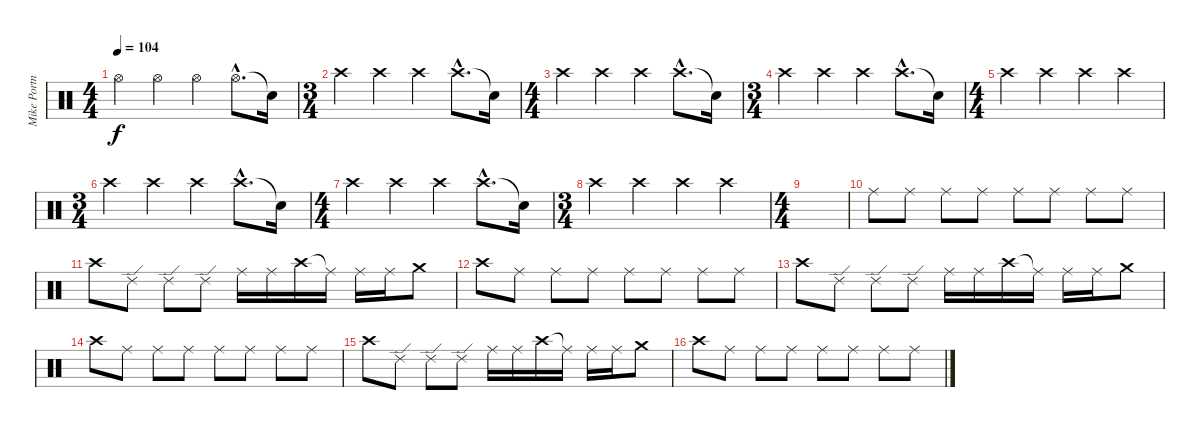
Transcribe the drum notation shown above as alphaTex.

\track ("Mike Portnoy" "Mike Portn") {instrument percussion}
\staff {score}
\articulation defaults
\ts (4 4)
\tempo 104
\clef neutral
\ks c "Hi-Hat (open)".4{dy f} "Hi-Hat (open)".4 "Hi-Hat (open)".4 "Hi-Hat (open)"{hac}.8{d} "Snare (hit)"{t}.16
|
\ts (3 4)
"Crash high (hit)".4 "Crash high (hit)".4 "Crash high (hit)".4 "Crash high (hit)"{hac}.8{d} "Snare (hit)"{t}.16 |
\ts (4 4)
"Crash high (hit)".4 "Crash high (hit)".4 "Crash high (hit)".4 "Crash high (hit)"{hac}.8{d} "Snare (hit)"{t}.16 |
\ts (3 4)
"Crash high (hit)".4 "Crash high (hit)".4 "Crash high (hit)".4 "Crash high (hit)"{hac}.8{d} "Snare (hit)"{t}.16 |
\ts (4 4)
"Crash high (hit)".4 "Crash high (hit)".4 "Crash high (hit)".4 "Crash high (hit)".4 |
\ts (3 4)
"Crash high (hit)".4 "Crash high (hit)".4 "Crash high (hit)".4 "Crash high (hit)"{hac}.8{d} "Snare (hit)"{t}.16 |
\ts (4 4)
"Crash high (hit)".4 "Crash high (hit)".4 "Crash high (hit)".4 "Crash high (hit)"{hac}.8{d} "Snare (hit)"{t}.16 |
\ts (3 4)
"Crash high (hit)".4 "Crash high (hit)".4 "Crash high (hit)".4 "Crash high (hit)".4 |
\ts (4 4)
|
"Ride (middle)".8 "Ride (middle)".8 "Ride (middle)".8 "Ride (middle)".8 "Ride (middle)".8 "Ride (middle)".8 "Ride (middle)".8 "Ride (middle)".8 |
"Crash high (hit)".8 "Ride (edge) 2".8 "Ride (edge) 2".8 "Ride (edge) 2".8 "Ride (middle)".16 "Ride (middle)".16 "Crash high (hit)".16 "Ride (middle)"{t}.16 "Ride (middle)".16 "Ride (middle)".16 "Crash medium (hit)".8 |
"Crash high (hit)".8 "Ride (middle)".8 "Ride (middle)".8 "Ride (middle)".8 "Ride (middle)".8 "Ride (middle)".8 "Ride (middle)".8 "Ride (middle)".8 |
"Crash high (hit)".8 "Ride (edge) 2".8 "Ride (edge) 2".8 "Ride (edge) 2".8 "Ride (middle)".16 "Ride (middle)".16 "Crash high (hit)".16 "Ride (middle)"{t}.16 "Ride (middle)".16 "Ride (middle)".16 "Crash medium (hit)".8 |
"Crash high (hit)".8 "Ride (middle)".8 "Ride (middle)".8 "Ride (middle)".8 "Ride (middle)".8 "Ride (middle)".8 "Ride (middle)".8 "Ride (middle)".8 |
"Crash high (hit)".8 "Ride (edge) 2".8 "Ride (edge) 2".8 "Ride (edge) 2".8 "Ride (middle)".16 "Ride (middle)".16 "Crash high (hit)".16 "Ride (middle)"{t}.16 "Ride (middle)".16 "Ride (middle)".16 "Crash medium (hit)".8 |
"Crash high (hit)".8 "Ride (middle)".8 "Ride (middle)".8 "Ride (middle)".8 "Ride (middle)".8 "Ride (middle)".8 "Ride (middle)".8 "Ride (middle)".8
